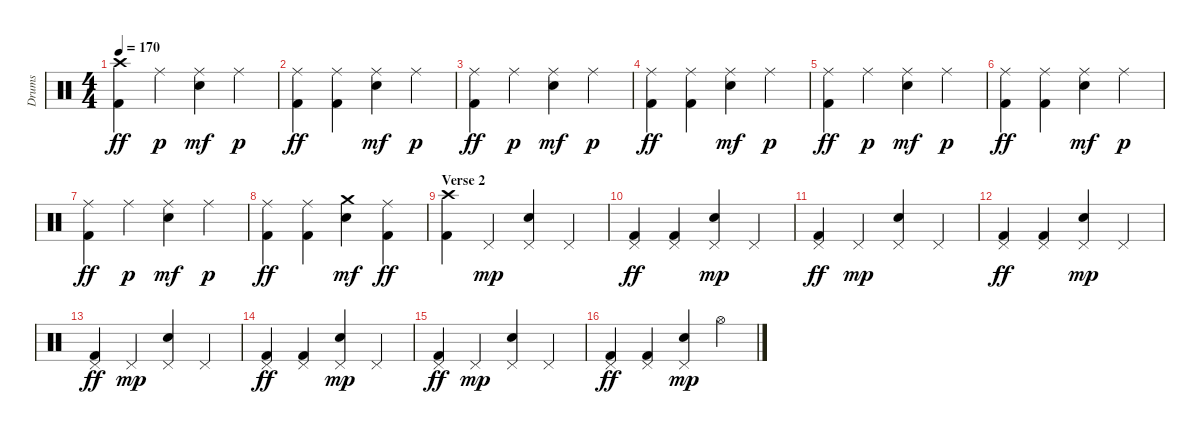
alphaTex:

\track ("Drums" "Drums") {instrument percussion}
\staff {score}
\articulation defaults
\ts (4 4)
\tempo 170
\clef neutral
\ks c
("Crash high (hit)" "Kick (hit) 2").4{dy ff} "Ride (middle)".4{dy p} ("Ride (middle)" "Electric Snare (hit)").4{dy mf} "Ride (middle)".4{dy p} |
("Ride (middle)" "Kick (hit) 2").4{dy ff} ("Ride (middle)" "Kick (hit) 2").4 ("Ride (middle)" "Electric Snare (hit)").4{dy mf} "Ride (middle)".4{dy p} |
("Ride (middle)" "Kick (hit) 2").4{dy ff} "Ride (middle)".4{dy p} ("Ride (middle)" "Electric Snare (hit)").4{dy mf} "Ride (middle)".4{dy p} |
("Ride (middle)" "Kick (hit) 2").4{dy ff} ("Ride (middle)" "Kick (hit) 2").4 ("Ride (middle)" "Electric Snare (hit)").4{dy mf} "Ride (middle)".4{dy p} |
("Ride (middle)" "Kick (hit) 2").4{dy ff} "Ride (middle)".4{dy p} ("Ride (middle)" "Electric Snare (hit)").4{dy mf} "Ride (middle)".4{dy p} |
("Ride (middle)" "Kick (hit) 2").4{dy ff} ("Ride (middle)" "Kick (hit) 2").4 ("Ride (middle)" "Electric Snare (hit)").4{dy mf} "Ride (middle)".4{dy p} |
("Ride (middle)" "Kick (hit) 2").4{dy ff} "Ride (middle)".4{dy p} ("Ride (middle)" "Electric Snare (hit)").4{dy mf} "Ride (middle)".4{dy p} |
("Ride (middle)" "Kick (hit) 2").4{dy ff} ("Ride (middle)" "Kick (hit) 2").4 ("Crash medium (hit)" "Electric Snare (hit)").4{dy mf} ("Ride (middle)" "Kick (hit) 2").4{dy ff} |
\section ("" "Verse 2")
("Crash high (hit)" "Kick (hit) 2").4 "Pedal Hi-Hat (hit)".4{dy mp} ("Pedal Hi-Hat (hit)" "Electric Snare (hit)").4 "Pedal Hi-Hat (hit)".4 |
("Pedal Hi-Hat (hit)" "Kick (hit) 2").4{dy ff} ("Pedal Hi-Hat (hit)" "Kick (hit) 2").4 ("Pedal Hi-Hat (hit)" "Electric Snare (hit)").4{dy mp} "Pedal Hi-Hat (hit)".4 |
("Pedal Hi-Hat (hit)" "Kick (hit) 2").4{dy ff} "Pedal Hi-Hat (hit)".4{dy mp} ("Pedal Hi-Hat (hit)" "Electric Snare (hit)").4 "Pedal Hi-Hat (hit)".4 |
("Pedal Hi-Hat (hit)" "Kick (hit) 2").4{dy ff} ("Pedal Hi-Hat (hit)" "Kick (hit) 2").4 ("Pedal Hi-Hat (hit)" "Electric Snare (hit)").4{dy mp} "Pedal Hi-Hat (hit)".4 |
("Pedal Hi-Hat (hit)" "Kick (hit) 2").4{dy ff} "Pedal Hi-Hat (hit)".4{dy mp} ("Pedal Hi-Hat (hit)" "Electric Snare (hit)").4 "Pedal Hi-Hat (hit)".4 |
("Pedal Hi-Hat (hit)" "Kick (hit) 2").4{dy ff} ("Pedal Hi-Hat (hit)" "Kick (hit) 2").4 ("Pedal Hi-Hat (hit)" "Electric Snare (hit)").4{dy mp} "Pedal Hi-Hat (hit)".4 |
("Pedal Hi-Hat (hit)" "Kick (hit) 2").4{dy ff} "Pedal Hi-Hat (hit)".4{dy mp} ("Pedal Hi-Hat (hit)" "Electric Snare (hit)").4 "Pedal Hi-Hat (hit)".4 |
("Pedal Hi-Hat (hit)" "Kick (hit) 2").4{dy ff} ("Pedal Hi-Hat (hit)" "Kick (hit) 2").4 ("Pedal Hi-Hat (hit)" "Electric Snare (hit)").4{dy mp} "Hi-Hat (open)".4
